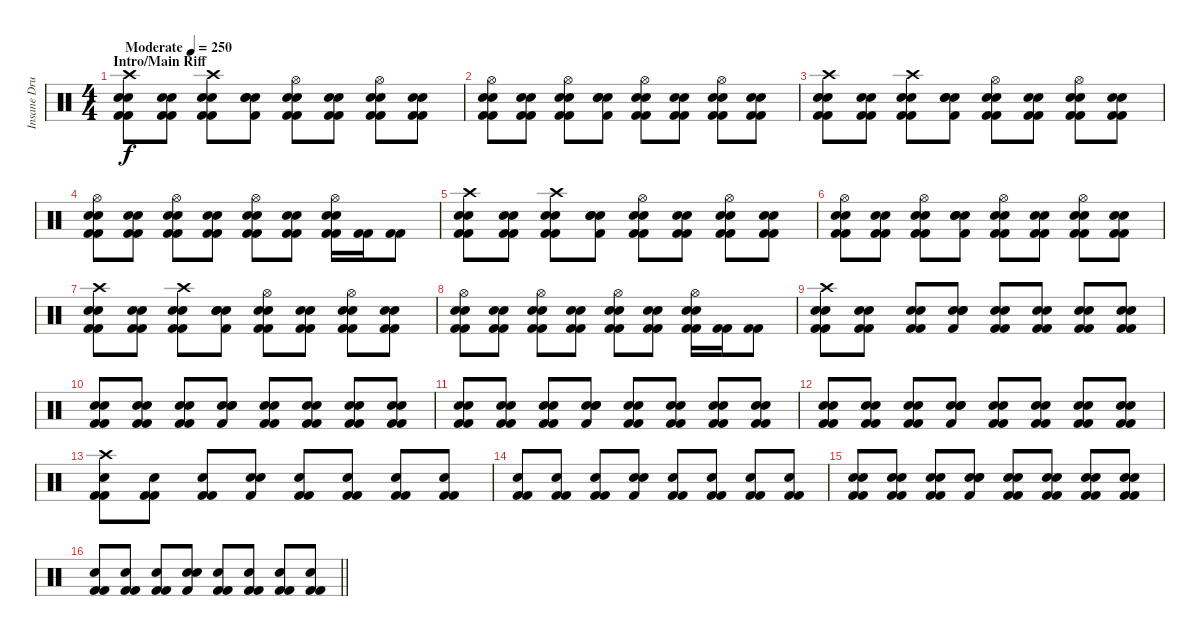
\track ("Insane Drums" "Insane Dru") {instrument percussion}
\staff {score}
\articulation defaults
\ts (4 4)
\section ("" "Intro/Main Riff")
\tempo (250 "Moderate")
\clef neutral
\ks c
("Kick (hit) 2" "Kick (hit) 2" "Electric Snare (hit)" "Electric Snare (hit)" "Crash high (hit)").8{dy f} ("Kick (hit) 2" "Kick (hit) 2" "Electric Snare (hit)" "Electric Snare (hit)").8 ("Kick (hit) 2" "Kick (hit) 2" "Electric Snare (hit)" "Electric Snare (hit)" "Crash high (hit)").8 ("Kick (hit) 2" "Electric Snare (hit)" "Electric Snare (hit)" "Electric Snare (hit)").8 ("Kick (hit) 2" "Kick (hit) 2" "Electric Snare (hit)" "Electric Snare (hit)" "Hi-Hat (open)").8 ("Kick (hit) 2" "Kick (hit) 2" "Electric Snare (hit)" "Electric Snare (hit)").8 ("Kick (hit) 2" "Kick (hit) 2" "Electric Snare (hit)" "Electric Snare (hit)" "Hi-Hat (open)").8 ("Kick (hit) 2" "Kick (hit) 2" "Electric Snare (hit)" "Electric Snare (hit)").8 |
("Kick (hit) 2" "Kick (hit) 2" "Electric Snare (hit)" "Electric Snare (hit)" "Hi-Hat (open)").8 ("Kick (hit) 2" "Kick (hit) 2" "Electric Snare (hit)" "Electric Snare (hit)").8 ("Kick (hit) 2" "Kick (hit) 2" "Electric Snare (hit)" "Electric Snare (hit)" "Hi-Hat (open)").8 ("Kick (hit) 2" "Electric Snare (hit)" "Electric Snare (hit)" "Electric Snare (hit)").8 ("Kick (hit) 2" "Kick (hit) 2" "Electric Snare (hit)" "Electric Snare (hit)" "Hi-Hat (open)").8 ("Kick (hit) 2" "Kick (hit) 2" "Electric Snare (hit)" "Electric Snare (hit)").8 ("Kick (hit) 2" "Kick (hit) 2" "Electric Snare (hit)" "Electric Snare (hit)" "Hi-Hat (open)").8 ("Kick (hit) 2" "Kick (hit) 2" "Electric Snare (hit)" "Electric Snare (hit)").8 |
("Kick (hit) 2" "Kick (hit) 2" "Electric Snare (hit)" "Electric Snare (hit)" "Crash high (hit)").8 ("Kick (hit) 2" "Kick (hit) 2" "Electric Snare (hit)" "Electric Snare (hit)").8 ("Kick (hit) 2" "Kick (hit) 2" "Electric Snare (hit)" "Electric Snare (hit)" "Crash high (hit)").8 ("Kick (hit) 2" "Electric Snare (hit)" "Electric Snare (hit)" "Electric Snare (hit)").8 ("Kick (hit) 2" "Kick (hit) 2" "Electric Snare (hit)" "Electric Snare (hit)" "Hi-Hat (open)").8 ("Kick (hit) 2" "Kick (hit) 2" "Electric Snare (hit)" "Electric Snare (hit)").8 ("Kick (hit) 2" "Kick (hit) 2" "Electric Snare (hit)" "Electric Snare (hit)" "Hi-Hat (open)").8 ("Kick (hit) 2" "Kick (hit) 2" "Electric Snare (hit)" "Electric Snare (hit)").8 |
("Kick (hit) 2" "Kick (hit) 2" "Electric Snare (hit)" "Electric Snare (hit)" "Hi-Hat (open)").8 ("Kick (hit) 2" "Kick (hit) 2" "Electric Snare (hit)" "Electric Snare (hit)").8 ("Kick (hit) 2" "Kick (hit) 2" "Electric Snare (hit)" "Electric Snare (hit)" "Hi-Hat (open)").8 ("Kick (hit) 2" "Kick (hit) 2" "Electric Snare (hit)" "Electric Snare (hit)").8 ("Kick (hit) 2" "Kick (hit) 2" "Electric Snare (hit)" "Electric Snare (hit)" "Hi-Hat (open)").8 ("Kick (hit) 2" "Kick (hit) 2" "Electric Snare (hit)" "Electric Snare (hit)").8 ("Kick (hit) 2" "Kick (hit) 2" "Electric Snare (hit)" "Electric Snare (hit)" "Hi-Hat (open)").16 ("Kick (hit) 2" "Kick (hit) 2").16 ("Kick (hit) 2" "Kick (hit) 2").8 |
("Kick (hit) 2" "Kick (hit) 2" "Electric Snare (hit)" "Electric Snare (hit)" "Crash high (hit)").8 ("Kick (hit) 2" "Kick (hit) 2" "Electric Snare (hit)" "Electric Snare (hit)").8 ("Kick (hit) 2" "Kick (hit) 2" "Electric Snare (hit)" "Electric Snare (hit)" "Crash high (hit)").8 ("Kick (hit) 2" "Electric Snare (hit)" "Electric Snare (hit)" "Electric Snare (hit)").8 ("Kick (hit) 2" "Kick (hit) 2" "Electric Snare (hit)" "Electric Snare (hit)" "Hi-Hat (open)").8 ("Kick (hit) 2" "Kick (hit) 2" "Electric Snare (hit)" "Electric Snare (hit)").8 ("Kick (hit) 2" "Kick (hit) 2" "Electric Snare (hit)" "Electric Snare (hit)" "Hi-Hat (open)").8 ("Kick (hit) 2" "Kick (hit) 2" "Electric Snare (hit)" "Electric Snare (hit)").8 |
("Kick (hit) 2" "Kick (hit) 2" "Electric Snare (hit)" "Electric Snare (hit)" "Hi-Hat (open)").8 ("Kick (hit) 2" "Kick (hit) 2" "Electric Snare (hit)" "Electric Snare (hit)").8 ("Kick (hit) 2" "Kick (hit) 2" "Electric Snare (hit)" "Electric Snare (hit)" "Hi-Hat (open)").8 ("Kick (hit) 2" "Electric Snare (hit)" "Electric Snare (hit)" "Electric Snare (hit)").8 ("Kick (hit) 2" "Kick (hit) 2" "Electric Snare (hit)" "Electric Snare (hit)" "Hi-Hat (open)").8 ("Kick (hit) 2" "Kick (hit) 2" "Electric Snare (hit)" "Electric Snare (hit)").8 ("Kick (hit) 2" "Kick (hit) 2" "Electric Snare (hit)" "Electric Snare (hit)" "Hi-Hat (open)").8 ("Kick (hit) 2" "Kick (hit) 2" "Electric Snare (hit)" "Electric Snare (hit)").8 |
("Kick (hit) 2" "Kick (hit) 2" "Electric Snare (hit)" "Electric Snare (hit)" "Crash high (hit)").8 ("Kick (hit) 2" "Kick (hit) 2" "Electric Snare (hit)" "Electric Snare (hit)").8 ("Kick (hit) 2" "Kick (hit) 2" "Electric Snare (hit)" "Electric Snare (hit)" "Crash high (hit)").8 ("Kick (hit) 2" "Electric Snare (hit)" "Electric Snare (hit)" "Electric Snare (hit)").8 ("Kick (hit) 2" "Kick (hit) 2" "Electric Snare (hit)" "Electric Snare (hit)" "Hi-Hat (open)").8 ("Kick (hit) 2" "Kick (hit) 2" "Electric Snare (hit)" "Electric Snare (hit)").8 ("Kick (hit) 2" "Kick (hit) 2" "Electric Snare (hit)" "Electric Snare (hit)" "Hi-Hat (open)").8 ("Kick (hit) 2" "Kick (hit) 2" "Electric Snare (hit)" "Electric Snare (hit)").8 |
("Kick (hit) 2" "Kick (hit) 2" "Electric Snare (hit)" "Electric Snare (hit)" "Hi-Hat (open)").8 ("Kick (hit) 2" "Kick (hit) 2" "Electric Snare (hit)" "Electric Snare (hit)").8 ("Kick (hit) 2" "Kick (hit) 2" "Electric Snare (hit)" "Electric Snare (hit)" "Hi-Hat (open)").8 ("Kick (hit) 2" "Kick (hit) 2" "Electric Snare (hit)" "Electric Snare (hit)").8 ("Kick (hit) 2" "Kick (hit) 2" "Electric Snare (hit)" "Electric Snare (hit)" "Hi-Hat (open)").8 ("Kick (hit) 2" "Kick (hit) 2" "Electric Snare (hit)" "Electric Snare (hit)").8 ("Kick (hit) 2" "Kick (hit) 2" "Electric Snare (hit)" "Electric Snare (hit)" "Hi-Hat (open)").16 ("Kick (hit) 2" "Kick (hit) 2").16 ("Kick (hit) 2" "Kick (hit) 2").8 |
("Kick (hit) 2" "Kick (hit) 2" "Electric Snare (hit)" "Electric Snare (hit)" "Crash high (hit)").8 ("Kick (hit) 2" "Kick (hit) 2" "Electric Snare (hit)" "Electric Snare (hit)").8 ("Kick (hit) 2" "Kick (hit) 2" "Electric Snare (hit)" "Electric Snare (hit)").8 ("Kick (hit) 2" "Electric Snare (hit)" "Electric Snare (hit)" "Electric Snare (hit)").8 ("Kick (hit) 2" "Kick (hit) 2" "Electric Snare (hit)" "Electric Snare (hit)").8 ("Kick (hit) 2" "Kick (hit) 2" "Electric Snare (hit)" "Electric Snare (hit)").8 ("Kick (hit) 2" "Kick (hit) 2" "Electric Snare (hit)" "Electric Snare (hit)").8 ("Kick (hit) 2" "Kick (hit) 2" "Electric Snare (hit)" "Electric Snare (hit)").8 |
("Kick (hit) 2" "Kick (hit) 2" "Electric Snare (hit)" "Electric Snare (hit)").8 ("Kick (hit) 2" "Kick (hit) 2" "Electric Snare (hit)" "Electric Snare (hit)").8 ("Kick (hit) 2" "Kick (hit) 2" "Electric Snare (hit)" "Electric Snare (hit)").8 ("Kick (hit) 2" "Electric Snare (hit)" "Electric Snare (hit)" "Electric Snare (hit)").8 ("Kick (hit) 2" "Kick (hit) 2" "Electric Snare (hit)" "Electric Snare (hit)").8 ("Kick (hit) 2" "Kick (hit) 2" "Electric Snare (hit)" "Electric Snare (hit)").8 ("Kick (hit) 2" "Kick (hit) 2" "Electric Snare (hit)" "Electric Snare (hit)").8 ("Kick (hit) 2" "Kick (hit) 2" "Electric Snare (hit)" "Electric Snare (hit)").8 |
("Kick (hit) 2" "Kick (hit) 2" "Electric Snare (hit)" "Electric Snare (hit)").8 ("Kick (hit) 2" "Kick (hit) 2" "Electric Snare (hit)" "Electric Snare (hit)").8 ("Kick (hit) 2" "Kick (hit) 2" "Electric Snare (hit)" "Electric Snare (hit)").8 ("Kick (hit) 2" "Electric Snare (hit)" "Electric Snare (hit)" "Electric Snare (hit)").8 ("Kick (hit) 2" "Kick (hit) 2" "Electric Snare (hit)" "Electric Snare (hit)").8 ("Kick (hit) 2" "Kick (hit) 2" "Electric Snare (hit)" "Electric Snare (hit)").8 ("Kick (hit) 2" "Kick (hit) 2" "Electric Snare (hit)" "Electric Snare (hit)").8 ("Kick (hit) 2" "Kick (hit) 2" "Electric Snare (hit)" "Electric Snare (hit)").8 |
("Kick (hit) 2" "Kick (hit) 2" "Electric Snare (hit)" "Electric Snare (hit)").8 ("Kick (hit) 2" "Kick (hit) 2" "Electric Snare (hit)" "Electric Snare (hit)").8 ("Kick (hit) 2" "Kick (hit) 2" "Electric Snare (hit)" "Electric Snare (hit)").8 ("Kick (hit) 2" "Electric Snare (hit)" "Electric Snare (hit)" "Electric Snare (hit)").8 ("Kick (hit) 2" "Kick (hit) 2" "Electric Snare (hit)" "Electric Snare (hit)").8 ("Kick (hit) 2" "Kick (hit) 2" "Electric Snare (hit)" "Electric Snare (hit)").8 ("Kick (hit) 2" "Kick (hit) 2" "Electric Snare (hit)" "Electric Snare (hit)").8 ("Kick (hit) 2" "Kick (hit) 2" "Electric Snare (hit)" "Electric Snare (hit)").8 |
("Kick (hit) 2" "Kick (hit) 2" "Electric Snare (hit)" "Crash high (hit)").8 ("Kick (hit) 2" "Kick (hit) 2" "Electric Snare (hit)").8 ("Kick (hit) 2" "Kick (hit) 2" "Electric Snare (hit)").8 ("Kick (hit) 2" "Electric Snare (hit)" "Electric Snare (hit)").8 ("Kick (hit) 2" "Kick (hit) 2" "Electric Snare (hit)").8 ("Kick (hit) 2" "Kick (hit) 2" "Electric Snare (hit)").8 ("Kick (hit) 2" "Kick (hit) 2" "Electric Snare (hit)").8 ("Kick (hit) 2" "Kick (hit) 2" "Electric Snare (hit)").8 |
("Kick (hit) 2" "Kick (hit) 2" "Electric Snare (hit)").8 ("Kick (hit) 2" "Kick (hit) 2" "Electric Snare (hit)").8 ("Kick (hit) 2" "Kick (hit) 2" "Electric Snare (hit)").8 ("Kick (hit) 2" "Electric Snare (hit)" "Electric Snare (hit)").8 ("Kick (hit) 2" "Kick (hit) 2" "Electric Snare (hit)").8 ("Kick (hit) 2" "Kick (hit) 2" "Electric Snare (hit)").8 ("Kick (hit) 2" "Kick (hit) 2" "Electric Snare (hit)").8 ("Kick (hit) 2" "Kick (hit) 2" "Electric Snare (hit)").8 |
("Kick (hit) 2" "Kick (hit) 2" "Electric Snare (hit)" "Electric Snare (hit)").8 ("Kick (hit) 2" "Kick (hit) 2" "Electric Snare (hit)" "Electric Snare (hit)").8 ("Kick (hit) 2" "Kick (hit) 2" "Electric Snare (hit)" "Electric Snare (hit)").8 ("Kick (hit) 2" "Electric Snare (hit)" "Electric Snare (hit)" "Electric Snare (hit)").8 ("Kick (hit) 2" "Kick (hit) 2" "Electric Snare (hit)" "Electric Snare (hit)").8 ("Kick (hit) 2" "Kick (hit) 2" "Electric Snare (hit)" "Electric Snare (hit)").8 ("Kick (hit) 2" "Kick (hit) 2" "Electric Snare (hit)" "Electric Snare (hit)").8 ("Kick (hit) 2" "Kick (hit) 2" "Electric Snare (hit)" "Electric Snare (hit)").8 |
\barLineRight lightlight
("Kick (hit) 2" "Kick (hit) 2" "Electric Snare (hit)").8 ("Kick (hit) 2" "Kick (hit) 2" "Electric Snare (hit)").8 ("Kick (hit) 2" "Kick (hit) 2" "Electric Snare (hit)").8 ("Kick (hit) 2" "Electric Snare (hit)" "Electric Snare (hit)").8 ("Kick (hit) 2" "Kick (hit) 2" "Electric Snare (hit)").8 ("Kick (hit) 2" "Kick (hit) 2" "Electric Snare (hit)").8 ("Kick (hit) 2" "Kick (hit) 2" "Electric Snare (hit)").8 ("Kick (hit) 2" "Kick (hit) 2" "Electric Snare (hit)").8
